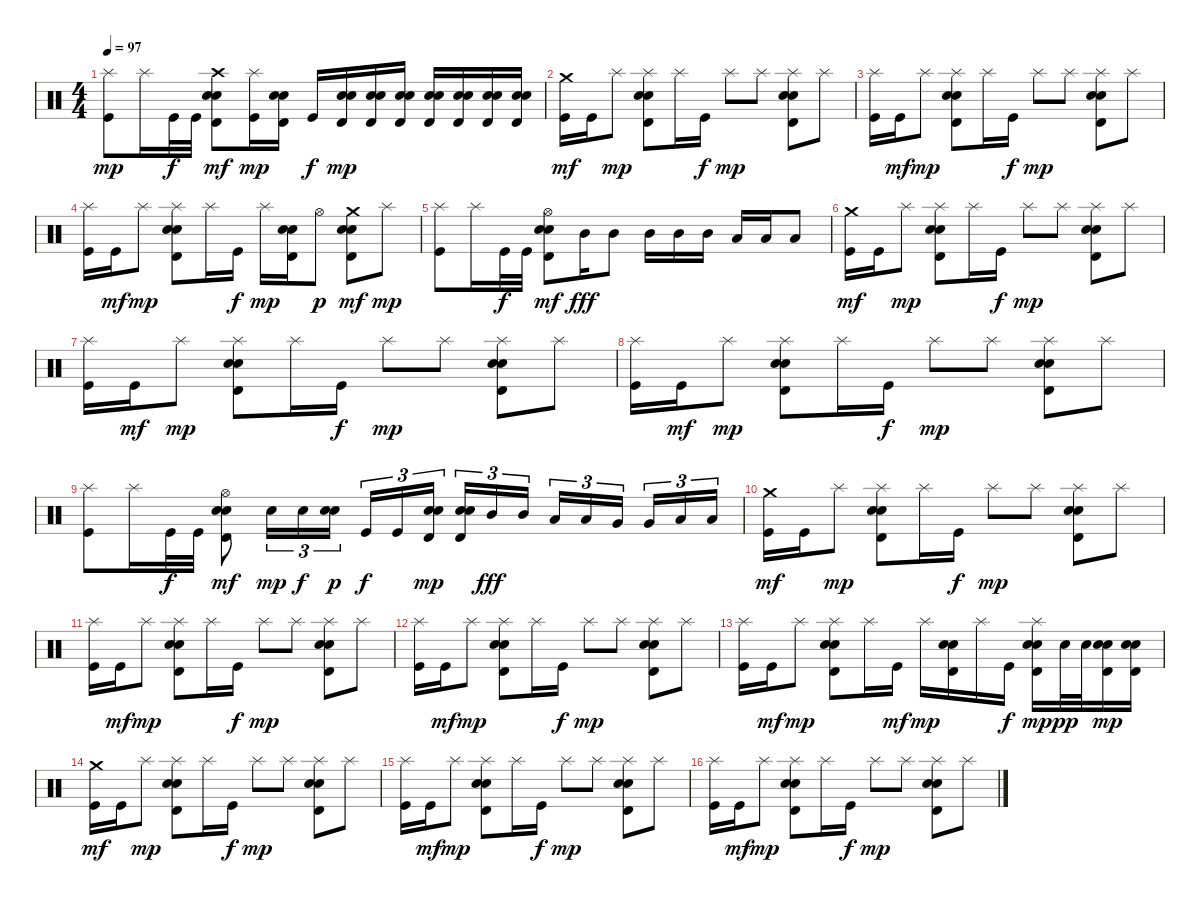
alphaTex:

\track "" {instrument percussion}
\staff {score}
\articulation defaults
\ts (4 4)
\tempo 97
\clef neutral
\ks c
("Kick (hit)" "Splash (hit)").8{dy mp} "Splash (hit)".16 "Kick (hit)".32{dy f} "Kick (hit)".32 ("Snare (hit) 2" "Electric Snare (hit)" "Timbale high (hit)" "Crash high (hit)").8{dy mf} ("Kick (hit)" "Splash (hit)").16{dy mp} ("Snare (hit) 2" "Electric Snare (hit)" "Timbale high (hit)").16 "Kick (hit)".16{dy f} ("Snare (hit) 2" "Electric Snare (hit)" "Timbale high (hit)").16{dy mp} ("Snare (hit) 2" "Electric Snare (hit)" "Timbale high (hit)").16 ("Snare (hit) 2" "Electric Snare (hit)" "Timbale high (hit)").16 ("Snare (hit) 2" "Electric Snare (hit)" "Timbale high (hit)").16 ("Snare (hit) 2" "Electric Snare (hit)" "Timbale high (hit)").16 ("Snare (hit) 2" "Electric Snare (hit)" "Timbale high (hit)").16 ("Snare (hit) 2" "Electric Snare (hit)" "Timbale high (hit)").16 |
\section ("" "")
("Kick (hit)" "Crash medium (hit)").16{dy mf} "Kick (hit)".16 "Splash (hit)".8{dy mp} ("Snare (hit) 2" "Electric Snare (hit)" "Timbale high (hit)" "Splash (hit)").8 "Splash (hit)".16 "Kick (hit)".16{dy f} "Splash (hit)".8{dy mp} "Splash (hit)".8 ("Snare (hit) 2" "Electric Snare (hit)" "Timbale high (hit)" "Splash (hit)").8 "Splash (hit)".8 |
("Kick (hit)" "Splash (hit)").16 "Kick (hit)".16{dy mf} "Splash (hit)".8{dy mp} ("Snare (hit) 2" "Electric Snare (hit)" "Timbale high (hit)" "Splash (hit)").8 "Splash (hit)".16 "Kick (hit)".16{dy f} "Splash (hit)".8{dy mp} "Splash (hit)".8 ("Snare (hit) 2" "Electric Snare (hit)" "Timbale high (hit)" "Splash (hit)").8 "Splash (hit)".8 |
("Kick (hit)" "Splash (hit)").16 "Kick (hit)".16{dy mf} "Splash (hit)".8{dy mp} ("Snare (hit) 2" "Electric Snare (hit)" "Timbale high (hit)" "Splash (hit)").8 "Splash (hit)".16 "Kick (hit)".16{dy f} "Splash (hit)".16{dy mp} ("Snare (hit) 2" "Electric Snare (hit)" "Timbale high (hit)").16 "Hi-Hat (open)".8{dy p} ("Snare (hit) 2" "Electric Snare (hit)" "Timbale high (hit)" "Crash medium (hit)").8{dy mf} "Splash (hit)".8{dy mp} |
("Kick (hit)" "Splash (hit)").8 "Splash (hit)".16 "Kick (hit)".32{dy f} "Kick (hit)".32 ("Snare (hit) 2" "Electric Snare (hit)" "Timbale high (hit)" "Hi-Hat (open)").8{dy mf} "Mid Tom (hit)".16{dy fff} "Mid Tom (hit)".8 "Mid Tom (hit)".16 "Mid Tom (hit)".16 "Mid Tom (hit)".16 "Low Tom (hit)".16 "Low Tom (hit)".16 "Low Tom (hit)".8 |
("Kick (hit)" "Crash medium (hit)").16{dy mf} "Kick (hit)".16 "Splash (hit)".8{dy mp} ("Snare (hit) 2" "Electric Snare (hit)" "Timbale high (hit)" "Splash (hit)").8 "Splash (hit)".16 "Kick (hit)".16{dy f} "Splash (hit)".8{dy mp} "Splash (hit)".8 ("Snare (hit) 2" "Electric Snare (hit)" "Timbale high (hit)" "Splash (hit)").8 "Splash (hit)".8 |
("Kick (hit)" "Splash (hit)").16 "Kick (hit)".16{dy mf} "Splash (hit)".8{dy mp} ("Snare (hit) 2" "Electric Snare (hit)" "Timbale high (hit)" "Splash (hit)").8 "Splash (hit)".16 "Kick (hit)".16{dy f} "Splash (hit)".8{dy mp} "Splash (hit)".8 ("Snare (hit) 2" "Electric Snare (hit)" "Timbale high (hit)" "Splash (hit)").8 "Splash (hit)".8 |
("Kick (hit)" "Splash (hit)").16 "Kick (hit)".16{dy mf} "Splash (hit)".8{dy mp} ("Snare (hit) 2" "Electric Snare (hit)" "Timbale high (hit)" "Splash (hit)").8 "Splash (hit)".16 "Kick (hit)".16{dy f} "Splash (hit)".8{dy mp} "Splash (hit)".8 ("Snare (hit) 2" "Electric Snare (hit)" "Timbale high (hit)" "Splash (hit)").8 "Splash (hit)".8 |
("Kick (hit)" "Splash (hit)").8{volume 12} "Splash (hit)".16 "Kick (hit)".32{dy f} "Kick (hit)".32 ("Snare (hit) 2" "Electric Snare (hit)" "Timbale high (hit)" "Hi-Hat (open)").8{dy mf} "Electric Snare (hit)".16{tu (3 2) dy mp} "Electric Snare (hit)".16{tu (3 2) dy f} ("Snare (hit) 2" "Electric Snare (hit)").16{tu (3 2) dy p} "Kick (hit)".16{tu (3 2) dy f} "Kick (hit)".16{tu (3 2)} ("Snare (hit) 2" "Electric Snare (hit)" "Timbale high (hit)").16{tu (3 2) dy mp} ("Snare (hit) 2" "Electric Snare (hit)" "Timbale high (hit)").16{tu (3 2)} "Mid Tom (hit)".16{tu (3 2) dy fff} "Mid Tom (hit)".16{tu (3 2)} "Low Tom (hit)".16{tu (3 2)} "Low Tom (hit)".16{tu (3 2)} "Very Low Tom (hit)".16{tu (3 2)} "Very Low Tom (hit)".16{tu (3 2)} "Low Floor Tom (hit)".16{tu (3 2)} "Low Floor Tom (hit)".16{tu (3 2)} |
("Kick (hit)" "Crash medium (hit)").16{dy mf volume 11} "Kick (hit)".16 "Splash (hit)".8{dy mp} ("Snare (hit) 2" "Electric Snare (hit)" "Timbale high (hit)" "Splash (hit)").8 "Splash (hit)".16 "Kick (hit)".16{dy f} "Splash (hit)".8{dy mp} "Splash (hit)".8 ("Snare (hit) 2" "Electric Snare (hit)" "Timbale high (hit)" "Splash (hit)").8 "Splash (hit)".8 |
("Kick (hit)" "Splash (hit)").16{volume 10} "Kick (hit)".16{dy mf} "Splash (hit)".8{dy mp} ("Snare (hit) 2" "Electric Snare (hit)" "Timbale high (hit)" "Splash (hit)").8 "Splash (hit)".16 "Kick (hit)".16{dy f} "Splash (hit)".8{dy mp} "Splash (hit)".8 ("Snare (hit) 2" "Electric Snare (hit)" "Timbale high (hit)" "Splash (hit)").8 "Splash (hit)".8 |
("Kick (hit)" "Splash (hit)").16{volume 10} "Kick (hit)".16{dy mf} "Splash (hit)".8{dy mp} ("Snare (hit) 2" "Electric Snare (hit)" "Timbale high (hit)" "Splash (hit)").8 "Splash (hit)".16 "Kick (hit)".16{dy f} "Splash (hit)".8{dy mp} "Splash (hit)".8 ("Snare (hit) 2" "Electric Snare (hit)" "Timbale high (hit)" "Splash (hit)").8 "Splash (hit)".8 |
("Kick (hit)" "Splash (hit)").16{volume 9} "Kick (hit)".16{dy mf} "Splash (hit)".8{dy mp} ("Snare (hit) 2" "Electric Snare (hit)" "Timbale high (hit)" "Splash (hit)").8 "Splash (hit)".16 "Kick (hit)".16{dy mf} "Splash (hit)".16{dy mp} ("Snare (hit) 2" "Electric Snare (hit)" "Timbale high (hit)").16 "Splash (hit)".16 "Kick (hit)".16{dy f} ("Snare (hit) 2" "Electric Snare (hit)" "Timbale high (hit)" "Splash (hit)").16{dy mp} "Snare (hit) 2".32{dy pp} "Snare (hit) 2".32 ("Snare (hit) 2" "Electric Snare (hit)" "Timbale high (hit)").16{dy mp} ("Snare (hit) 2" "Electric Snare (hit)" "Timbale high (hit)").16 |
("Kick (hit)" "Crash medium (hit)").16{dy mf volume 8} "Kick (hit)".16 "Splash (hit)".8{dy mp} ("Snare (hit) 2" "Electric Snare (hit)" "Timbale high (hit)" "Splash (hit)").8 "Splash (hit)".16 "Kick (hit)".16{dy f} "Splash (hit)".8{dy mp} "Splash (hit)".8 ("Snare (hit) 2" "Electric Snare (hit)" "Timbale high (hit)" "Splash (hit)").8 "Splash (hit)".8 |
("Kick (hit)" "Splash (hit)").16{volume 7} "Kick (hit)".16{dy mf} "Splash (hit)".8{dy mp} ("Snare (hit) 2" "Electric Snare (hit)" "Timbale high (hit)" "Splash (hit)").8 "Splash (hit)".16 "Kick (hit)".16{dy f} "Splash (hit)".8{dy mp} "Splash (hit)".8 ("Snare (hit) 2" "Electric Snare (hit)" "Timbale high (hit)" "Splash (hit)").8 "Splash (hit)".8 |
("Kick (hit)" "Splash (hit)").16{volume 6} "Kick (hit)".16{dy mf} "Splash (hit)".8{dy mp} ("Snare (hit) 2" "Electric Snare (hit)" "Timbale high (hit)" "Splash (hit)").8 "Splash (hit)".16 "Kick (hit)".16{dy f} "Splash (hit)".8{dy mp} "Splash (hit)".8 ("Snare (hit) 2" "Electric Snare (hit)" "Timbale high (hit)" "Splash (hit)").8 "Splash (hit)".8
